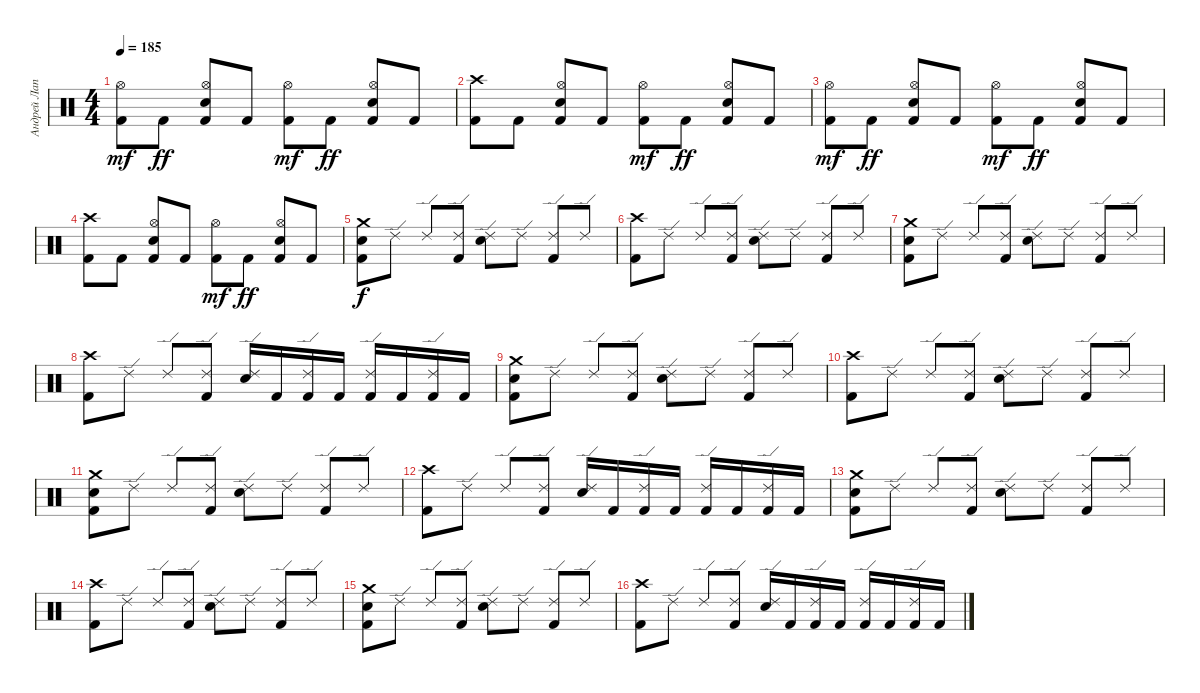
\track ("Андрей Лаптев" "Андрей Лап") {instrument percussion}
\staff {score}
\articulation defaults
\ts (4 4)
\tempo 185
\clef neutral
\ks c
("Kick (hit) 2" "Hi-Hat (open)").8{dy mf} "Kick (hit) 2".8{dy ff} ("Electric Snare (hit)" "Hi-Hat (open)" "Kick (hit) 2").8 "Kick (hit) 2".8 ("Kick (hit) 2" "Hi-Hat (open)").8{dy mf} "Kick (hit) 2".8{dy ff} ("Hi-Hat (open)" "Electric Snare (hit)" "Kick (hit) 2").8 "Kick (hit) 2".8 |
("Crash high (hit)" "Kick (hit) 2").8 "Kick (hit) 2".8 ("Hi-Hat (open)" "Electric Snare (hit)" "Kick (hit) 2").8 "Kick (hit) 2".8 ("Kick (hit) 2" "Hi-Hat (open)").8{dy mf} "Kick (hit) 2".8{dy ff} ("Electric Snare (hit)" "Hi-Hat (open)" "Kick (hit) 2").8 "Kick (hit) 2".8 |
("Kick (hit) 2" "Hi-Hat (open)").8{dy mf} "Kick (hit) 2".8{dy ff} ("Electric Snare (hit)" "Hi-Hat (open)" "Kick (hit) 2").8 "Kick (hit) 2".8 ("Kick (hit) 2" "Hi-Hat (open)").8{dy mf} "Kick (hit) 2".8{dy ff} ("Hi-Hat (open)" "Electric Snare (hit)" "Kick (hit) 2").8 "Kick (hit) 2".8 |
("Crash high (hit)" "Kick (hit) 2").8 "Kick (hit) 2".8 ("Hi-Hat (open)" "Electric Snare (hit)" "Kick (hit) 2").8 "Kick (hit) 2".8 ("Kick (hit) 2" "Hi-Hat (open)").8{dy mf} "Kick (hit) 2".8{dy ff} ("Electric Snare (hit)" "Hi-Hat (open)" "Kick (hit) 2").8 "Kick (hit) 2".8 |
("Electric Snare (hit)" "Crash medium (hit)" "Kick (hit) 2").8{dy f} "Ride (edge) 2".8 "Ride (edge) 2".8 ("Ride (edge) 2" "Kick (hit) 2").8 ("Ride (edge) 2" "Electric Snare (hit)").8 "Ride (edge) 2".8 ("Ride (edge) 2" "Kick (hit) 2").8 "Ride (edge) 2".8 |
("Kick (hit) 2" "Crash high (hit)").8 "Ride (edge) 2".8 "Ride (edge) 2".8 ("Ride (edge) 2" "Kick (hit) 2").8 ("Ride (edge) 2" "Electric Snare (hit)").8 "Ride (edge) 2".8 ("Ride (edge) 2" "Kick (hit) 2").8 "Ride (edge) 2".8 |
("Electric Snare (hit)" "Crash medium (hit)" "Kick (hit) 2").8 "Ride (edge) 2".8 "Ride (edge) 2".8 ("Ride (edge) 2" "Kick (hit) 2").8 ("Ride (edge) 2" "Electric Snare (hit)").8 "Ride (edge) 2".8 ("Ride (edge) 2" "Kick (hit) 2").8 "Ride (edge) 2".8 |
("Kick (hit) 2" "Crash high (hit)").8 "Ride (edge) 2".8 "Ride (edge) 2".8 ("Ride (edge) 2" "Kick (hit) 2").8 ("Ride (edge) 2" "Electric Snare (hit)").16 "Kick (hit) 2".16 ("Ride (edge) 2" "Kick (hit) 2").16 "Kick (hit) 2".16 ("Ride (edge) 2" "Kick (hit) 2").16 "Kick (hit) 2".16 ("Ride (edge) 2" "Kick (hit) 2").16 "Kick (hit) 2".16 |
("Electric Snare (hit)" "Crash medium (hit)" "Kick (hit) 2").8 "Ride (edge) 2".8 "Ride (edge) 2".8 ("Ride (edge) 2" "Kick (hit) 2").8 ("Ride (edge) 2" "Electric Snare (hit)").8 "Ride (edge) 2".8 ("Ride (edge) 2" "Kick (hit) 2").8 "Ride (edge) 2".8 |
("Kick (hit) 2" "Crash high (hit)").8 "Ride (edge) 2".8 "Ride (edge) 2".8 ("Ride (edge) 2" "Kick (hit) 2").8 ("Ride (edge) 2" "Electric Snare (hit)").8 "Ride (edge) 2".8 ("Ride (edge) 2" "Kick (hit) 2").8 "Ride (edge) 2".8 |
("Electric Snare (hit)" "Crash medium (hit)" "Kick (hit) 2").8 "Ride (edge) 2".8 "Ride (edge) 2".8 ("Ride (edge) 2" "Kick (hit) 2").8 ("Ride (edge) 2" "Electric Snare (hit)").8 "Ride (edge) 2".8 ("Ride (edge) 2" "Kick (hit) 2").8 "Ride (edge) 2".8 |
("Kick (hit) 2" "Crash high (hit)").8 "Ride (edge) 2".8 "Ride (edge) 2".8 ("Ride (edge) 2" "Kick (hit) 2").8 ("Ride (edge) 2" "Electric Snare (hit)").16 "Kick (hit) 2".16 ("Ride (edge) 2" "Kick (hit) 2").16 "Kick (hit) 2".16 ("Ride (edge) 2" "Kick (hit) 2").16 "Kick (hit) 2".16 ("Ride (edge) 2" "Kick (hit) 2").16 "Kick (hit) 2".16 |
("Electric Snare (hit)" "Crash medium (hit)" "Kick (hit) 2").8 "Ride (edge) 2".8 "Ride (edge) 2".8 ("Ride (edge) 2" "Kick (hit) 2").8 ("Ride (edge) 2" "Electric Snare (hit)").8 "Ride (edge) 2".8 ("Ride (edge) 2" "Kick (hit) 2").8 "Ride (edge) 2".8 |
("Kick (hit) 2" "Crash high (hit)").8 "Ride (edge) 2".8 "Ride (edge) 2".8 ("Ride (edge) 2" "Kick (hit) 2").8 ("Ride (edge) 2" "Electric Snare (hit)").8 "Ride (edge) 2".8 ("Ride (edge) 2" "Kick (hit) 2").8 "Ride (edge) 2".8 |
("Electric Snare (hit)" "Crash medium (hit)" "Kick (hit) 2").8 "Ride (edge) 2".8 "Ride (edge) 2".8 ("Ride (edge) 2" "Kick (hit) 2").8 ("Ride (edge) 2" "Electric Snare (hit)").8 "Ride (edge) 2".8 ("Ride (edge) 2" "Kick (hit) 2").8 "Ride (edge) 2".8 |
("Kick (hit) 2" "Crash high (hit)").8 "Ride (edge) 2".8 "Ride (edge) 2".8 ("Ride (edge) 2" "Kick (hit) 2").8 ("Ride (edge) 2" "Electric Snare (hit)").16 "Kick (hit) 2".16 ("Ride (edge) 2" "Kick (hit) 2").16 "Kick (hit) 2".16 ("Ride (edge) 2" "Kick (hit) 2").16 "Kick (hit) 2".16 ("Ride (edge) 2" "Kick (hit) 2").16 "Kick (hit) 2".16
